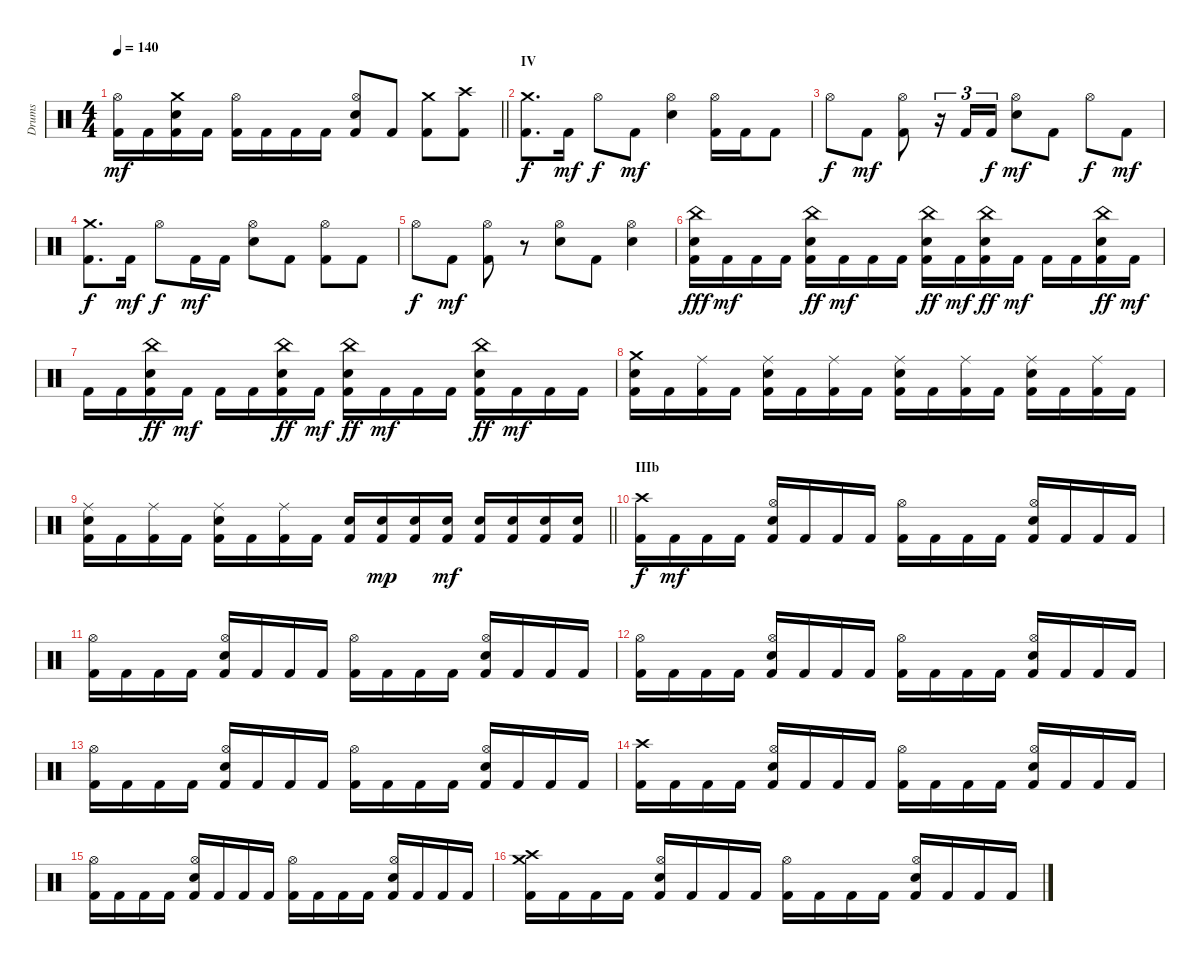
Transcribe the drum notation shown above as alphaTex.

\track ("Drums" "Drums") {instrument percussion}
\staff {score}
\articulation defaults
\ts (4 4)
\tempo 140
\clef neutral
\barLineRight lightlight
\ks c
("Kick (hit) 2" "Hi-Hat (open)").16{dy mf} "Kick (hit) 2".16 ("Kick (hit) 2" "Electric Snare (hit)" "Crash medium (hit)").16 "Kick (hit) 2".16 ("Kick (hit) 2" "Hi-Hat (open)").16 "Kick (hit) 2".16 "Kick (hit) 2".16 "Kick (hit) 2".16 ("Kick (hit) 2" "Electric Snare (hit)" "Hi-Hat (open)").8 "Kick (hit) 2".8 ("Kick (hit) 2" "Crash medium (hit)").8 ("Kick (hit) 2" "Crash high (hit)").8 |
\section ("" "IV")
("Kick (hit) 2" "Crash medium (hit)").8{d dy f} "Kick (hit) 2".16{dy mf} "Hi-Hat (open)".8{dy f} "Kick (hit) 2".8{dy mf} ("Electric Snare (hit)" "Hi-Hat (open)").4 ("Kick (hit) 2" "Hi-Hat (open)").16 "Kick (hit) 2".16 "Kick (hit) 2".8 |
"Hi-Hat (open)".8{dy f} "Kick (hit) 2".8{dy mf} ("Kick (hit) 2" "Hi-Hat (open)").8 r.16{tu (3 2)} "Kick (hit) 2".16{tu (3 2)} "Kick (hit) 2".16{tu (3 2) dy f} ("Electric Snare (hit)" "Hi-Hat (open)").8{dy mf} "Kick (hit) 2".8 "Hi-Hat (open)".8{dy f} "Kick (hit) 2".8{dy mf} |
("Kick (hit) 2" "Crash medium (hit)").8{d dy f} "Kick (hit) 2".16{dy mf} "Hi-Hat (open)".8{dy f} "Kick (hit) 2".16{dy mf} "Kick (hit) 2".16 ("Electric Snare (hit)" "Hi-Hat (open)").8 "Kick (hit) 2".8 ("Kick (hit) 2" "Hi-Hat (open)").8 "Kick (hit) 2".8 |
"Hi-Hat (open)".8{dy f} "Kick (hit) 2".8{dy mf} ("Kick (hit) 2" "Hi-Hat (open)").8 r.8 ("Electric Snare (hit)" "Hi-Hat (open)").8 "Kick (hit) 2".8 ("Electric Snare (hit)" "Hi-Hat (open)").4 |
("Kick (hit) 2" "Electric Snare (hit)" "China (hit)").16{dy fff} "Kick (hit) 2".16{dy mf} "Kick (hit) 2".16 "Kick (hit) 2".16 ("Kick (hit) 2" "Electric Snare (hit)" "China (hit)").16{dy ff} "Kick (hit) 2".16{dy mf} "Kick (hit) 2".16 "Kick (hit) 2".16 ("Kick (hit) 2" "Electric Snare (hit)" "China (hit)").16{dy ff} "Kick (hit) 2".16{dy mf} ("Kick (hit) 2" "Electric Snare (hit)" "China (hit)").16{dy ff} "Kick (hit) 2".16{dy mf} "Kick (hit) 2".16 "Kick (hit) 2".16 ("Kick (hit) 2" "Electric Snare (hit)" "China (hit)").16{dy ff} "Kick (hit) 2".16{dy mf} |
"Kick (hit) 2".16 "Kick (hit) 2".16 ("Kick (hit) 2" "Electric Snare (hit)" "China (hit)").16{dy ff} "Kick (hit) 2".16{dy mf} "Kick (hit) 2".16 "Kick (hit) 2".16 ("Kick (hit) 2" "Electric Snare (hit)" "China (hit)").16{dy ff} "Kick (hit) 2".16{dy mf} ("Kick (hit) 2" "Electric Snare (hit)" "China (hit)").16{dy ff} "Kick (hit) 2".16{dy mf} "Kick (hit) 2".16 "Kick (hit) 2".16 ("Kick (hit) 2" "Electric Snare (hit)" "China (hit)").16{dy ff} "Kick (hit) 2".16{dy mf} "Kick (hit) 2".16 "Kick (hit) 2".16 |
("Kick (hit) 2" "Electric Snare (hit)" "Crash medium (hit)").16 "Kick (hit) 2".16 ("Kick (hit) 2" "Ride (middle)").16 "Kick (hit) 2".16 ("Kick (hit) 2" "Electric Snare (hit)" "Ride (middle)").16 "Kick (hit) 2".16 ("Kick (hit) 2" "Ride (middle)").16 "Kick (hit) 2".16 ("Kick (hit) 2" "Electric Snare (hit)" "Ride (middle)").16 "Kick (hit) 2".16 ("Kick (hit) 2" "Ride (middle)").16 "Kick (hit) 2".16 ("Kick (hit) 2" "Electric Snare (hit)" "Ride (middle)").16 "Kick (hit) 2".16 ("Kick (hit) 2" "Ride (middle)").16 "Kick (hit) 2".16 |
\barLineRight lightlight
("Kick (hit) 2" "Electric Snare (hit)" "Ride (middle)").16 "Kick (hit) 2".16 ("Kick (hit) 2" "Ride (middle)").16 "Kick (hit) 2".16 ("Kick (hit) 2" "Electric Snare (hit)" "Ride (middle)").16 "Kick (hit) 2".16 ("Kick (hit) 2" "Ride (middle)").16 "Kick (hit) 2".16 ("Kick (hit) 2" "Electric Snare (hit)").16 ("Kick (hit) 2" "Electric Snare (hit)").16{dy mp} ("Kick (hit) 2" "Electric Snare (hit)").16 ("Kick (hit) 2" "Electric Snare (hit)").16{dy mf} ("Kick (hit) 2" "Electric Snare (hit)").16 ("Kick (hit) 2" "Electric Snare (hit)").16 ("Kick (hit) 2" "Electric Snare (hit)").16 ("Kick (hit) 2" "Electric Snare (hit)").16 |
\section ("" "IIIb")
("Kick (hit) 2" "Crash high (hit)").16{dy f} "Kick (hit) 2".16{dy mf} "Kick (hit) 2".16 "Kick (hit) 2".16 ("Kick (hit) 2" "Electric Snare (hit)" "Hi-Hat (open)").16 "Kick (hit) 2".16 "Kick (hit) 2".16 "Kick (hit) 2".16 ("Kick (hit) 2" "Hi-Hat (open)").16 "Kick (hit) 2".16 "Kick (hit) 2".16 "Kick (hit) 2".16 ("Kick (hit) 2" "Electric Snare (hit)" "Hi-Hat (open)").16 "Kick (hit) 2".16 "Kick (hit) 2".16 "Kick (hit) 2".16 |
("Kick (hit) 2" "Hi-Hat (open)").16 "Kick (hit) 2".16 "Kick (hit) 2".16 "Kick (hit) 2".16 ("Kick (hit) 2" "Electric Snare (hit)" "Hi-Hat (open)").16 "Kick (hit) 2".16 "Kick (hit) 2".16 "Kick (hit) 2".16 ("Kick (hit) 2" "Hi-Hat (open)").16 "Kick (hit) 2".16 "Kick (hit) 2".16 "Kick (hit) 2".16 ("Kick (hit) 2" "Electric Snare (hit)" "Hi-Hat (open)").16 "Kick (hit) 2".16 "Kick (hit) 2".16 "Kick (hit) 2".16 |
("Kick (hit) 2" "Hi-Hat (open)").16 "Kick (hit) 2".16 "Kick (hit) 2".16 "Kick (hit) 2".16 ("Kick (hit) 2" "Electric Snare (hit)" "Hi-Hat (open)").16 "Kick (hit) 2".16 "Kick (hit) 2".16 "Kick (hit) 2".16 ("Kick (hit) 2" "Hi-Hat (open)").16 "Kick (hit) 2".16 "Kick (hit) 2".16 "Kick (hit) 2".16 ("Kick (hit) 2" "Electric Snare (hit)" "Hi-Hat (open)").16 "Kick (hit) 2".16 "Kick (hit) 2".16 "Kick (hit) 2".16 |
("Kick (hit) 2" "Hi-Hat (open)").16 "Kick (hit) 2".16 "Kick (hit) 2".16 "Kick (hit) 2".16 ("Kick (hit) 2" "Electric Snare (hit)" "Hi-Hat (open)").16 "Kick (hit) 2".16 "Kick (hit) 2".16 "Kick (hit) 2".16 ("Kick (hit) 2" "Hi-Hat (open)").16 "Kick (hit) 2".16 "Kick (hit) 2".16 "Kick (hit) 2".16 ("Kick (hit) 2" "Electric Snare (hit)" "Hi-Hat (open)").16 "Kick (hit) 2".16 "Kick (hit) 2".16 "Kick (hit) 2".16 |
("Kick (hit) 2" "Crash high (hit)").16 "Kick (hit) 2".16 "Kick (hit) 2".16 "Kick (hit) 2".16 ("Kick (hit) 2" "Electric Snare (hit)" "Hi-Hat (open)").16 "Kick (hit) 2".16 "Kick (hit) 2".16 "Kick (hit) 2".16 ("Kick (hit) 2" "Hi-Hat (open)").16 "Kick (hit) 2".16 "Kick (hit) 2".16 "Kick (hit) 2".16 ("Kick (hit) 2" "Electric Snare (hit)" "Hi-Hat (open)").16 "Kick (hit) 2".16 "Kick (hit) 2".16 "Kick (hit) 2".16 |
("Kick (hit) 2" "Hi-Hat (open)").16 "Kick (hit) 2".16 "Kick (hit) 2".16 "Kick (hit) 2".16 ("Kick (hit) 2" "Electric Snare (hit)" "Hi-Hat (open)").16 "Kick (hit) 2".16 "Kick (hit) 2".16 "Kick (hit) 2".16 ("Kick (hit) 2" "Hi-Hat (open)").16 "Kick (hit) 2".16 "Kick (hit) 2".16 "Kick (hit) 2".16 ("Kick (hit) 2" "Electric Snare (hit)" "Hi-Hat (open)").16 "Kick (hit) 2".16 "Kick (hit) 2".16 "Kick (hit) 2".16 |
("Kick (hit) 2" "Crash high (hit)" "Crash medium (hit)").16 "Kick (hit) 2".16 "Kick (hit) 2".16 "Kick (hit) 2".16 ("Kick (hit) 2" "Electric Snare (hit)" "Hi-Hat (open)").16 "Kick (hit) 2".16 "Kick (hit) 2".16 "Kick (hit) 2".16 ("Kick (hit) 2" "Hi-Hat (open)").16 "Kick (hit) 2".16 "Kick (hit) 2".16 "Kick (hit) 2".16 ("Kick (hit) 2" "Electric Snare (hit)" "Hi-Hat (open)").16 "Kick (hit) 2".16 "Kick (hit) 2".16 "Kick (hit) 2".16
